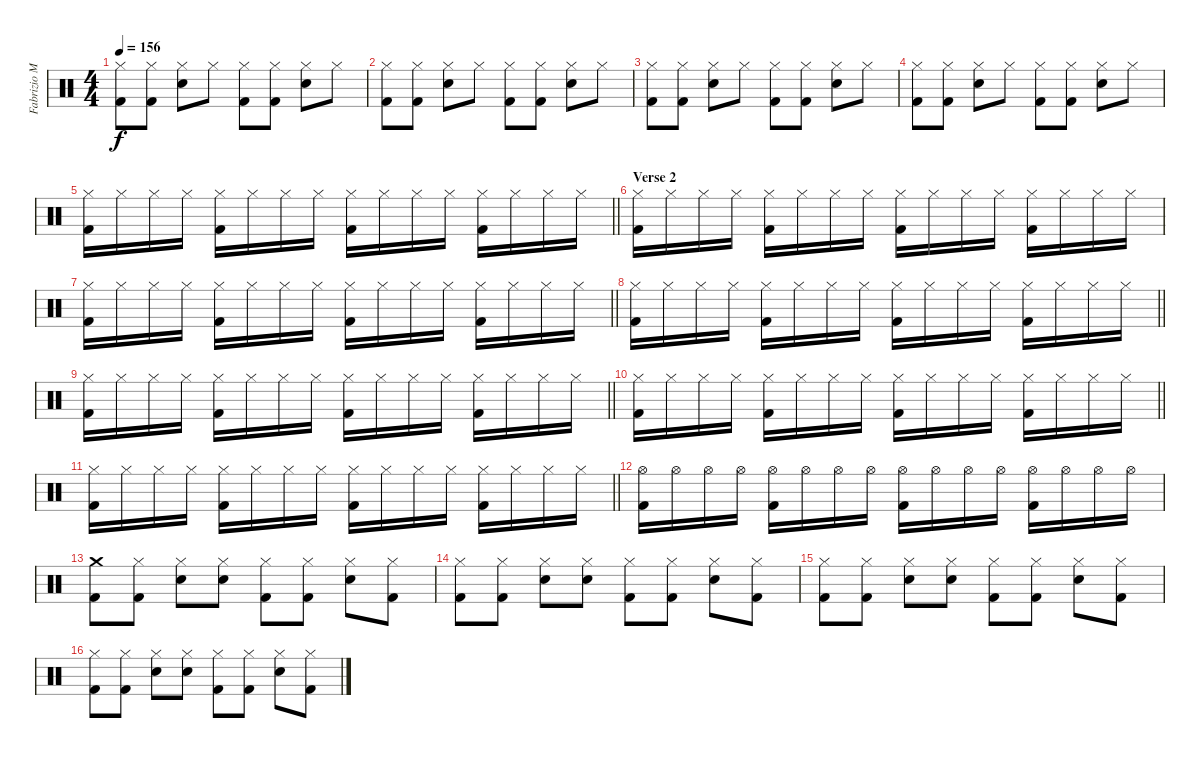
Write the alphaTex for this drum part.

\track ("Fabrizio Moretti (Drums)" "Fabrizio M") {instrument percussion}
\staff {score}
\articulation defaults
\ts (4 4)
\tempo 156
\clef neutral
\ks c
("Hi-Hat (closed)" "Kick (hit) 2").8{dy f} ("Hi-Hat (closed)" "Kick (hit) 2").8 ("Hi-Hat (closed)" "Snare (hit) 2").8 "Hi-Hat (closed)".8 ("Hi-Hat (closed)" "Kick (hit) 2").8 ("Hi-Hat (closed)" "Kick (hit) 2").8 ("Hi-Hat (closed)" "Snare (hit) 2").8 "Hi-Hat (closed)".8 |
("Hi-Hat (closed)" "Kick (hit) 2").8 ("Hi-Hat (closed)" "Kick (hit) 2").8 ("Hi-Hat (closed)" "Snare (hit) 2").8 "Hi-Hat (closed)".8 ("Hi-Hat (closed)" "Kick (hit) 2").8 ("Hi-Hat (closed)" "Kick (hit) 2").8 ("Hi-Hat (closed)" "Snare (hit) 2").8 "Hi-Hat (closed)".8 |
("Hi-Hat (closed)" "Kick (hit) 2").8 ("Hi-Hat (closed)" "Kick (hit) 2").8 ("Hi-Hat (closed)" "Snare (hit) 2").8 "Hi-Hat (closed)".8 ("Hi-Hat (closed)" "Kick (hit) 2").8 ("Hi-Hat (closed)" "Kick (hit) 2").8 ("Hi-Hat (closed)" "Snare (hit) 2").8 "Hi-Hat (closed)".8 |
("Hi-Hat (closed)" "Kick (hit) 2").8 ("Hi-Hat (closed)" "Kick (hit) 2").8 ("Hi-Hat (closed)" "Snare (hit) 2").8 "Hi-Hat (closed)".8 ("Hi-Hat (closed)" "Kick (hit) 2").8 ("Hi-Hat (closed)" "Kick (hit) 2").8 ("Hi-Hat (closed)" "Snare (hit) 2").8 "Hi-Hat (closed)".8 |
\barLineRight lightlight
("Hi-Hat (closed)" "Kick (hit) 2").16 "Hi-Hat (closed)".16 "Hi-Hat (closed)".16 "Hi-Hat (closed)".16 ("Hi-Hat (closed)" "Kick (hit) 2").16 "Hi-Hat (closed)".16 "Hi-Hat (closed)".16 "Hi-Hat (closed)".16 ("Hi-Hat (closed)" "Kick (hit) 2").16 "Hi-Hat (closed)".16 "Hi-Hat (closed)".16 "Hi-Hat (closed)".16 ("Hi-Hat (closed)" "Kick (hit) 2").16 "Hi-Hat (closed)".16 "Hi-Hat (closed)".16 "Hi-Hat (closed)".16 |
\section ("" "Verse 2")
("Hi-Hat (closed)" "Kick (hit) 2").16 "Hi-Hat (closed)".16 "Hi-Hat (closed)".16 "Hi-Hat (closed)".16 ("Hi-Hat (closed)" "Kick (hit) 2").16 "Hi-Hat (closed)".16 "Hi-Hat (closed)".16 "Hi-Hat (closed)".16 ("Hi-Hat (closed)" "Kick (hit) 2").16 "Hi-Hat (closed)".16 "Hi-Hat (closed)".16 "Hi-Hat (closed)".16 ("Hi-Hat (closed)" "Kick (hit) 2").16 "Hi-Hat (closed)".16 "Hi-Hat (closed)".16 "Hi-Hat (closed)".16 |
\barLineRight lightlight
("Hi-Hat (closed)" "Kick (hit) 2").16 "Hi-Hat (closed)".16 "Hi-Hat (closed)".16 "Hi-Hat (closed)".16 ("Hi-Hat (closed)" "Kick (hit) 2").16 "Hi-Hat (closed)".16 "Hi-Hat (closed)".16 "Hi-Hat (closed)".16 ("Hi-Hat (closed)" "Kick (hit) 2").16 "Hi-Hat (closed)".16 "Hi-Hat (closed)".16 "Hi-Hat (closed)".16 ("Hi-Hat (closed)" "Kick (hit) 2").16 "Hi-Hat (closed)".16 "Hi-Hat (closed)".16 "Hi-Hat (closed)".16 |
\barLineRight lightlight
("Hi-Hat (closed)" "Kick (hit) 2").16 "Hi-Hat (closed)".16 "Hi-Hat (closed)".16 "Hi-Hat (closed)".16 ("Hi-Hat (closed)" "Kick (hit) 2").16 "Hi-Hat (closed)".16 "Hi-Hat (closed)".16 "Hi-Hat (closed)".16 ("Hi-Hat (closed)" "Kick (hit) 2").16 "Hi-Hat (closed)".16 "Hi-Hat (closed)".16 "Hi-Hat (closed)".16 ("Hi-Hat (closed)" "Kick (hit) 2").16 "Hi-Hat (closed)".16 "Hi-Hat (closed)".16 "Hi-Hat (closed)".16 |
\barLineRight lightlight
("Hi-Hat (closed)" "Kick (hit) 2").16 "Hi-Hat (closed)".16 "Hi-Hat (closed)".16 "Hi-Hat (closed)".16 ("Hi-Hat (closed)" "Kick (hit) 2").16 "Hi-Hat (closed)".16 "Hi-Hat (closed)".16 "Hi-Hat (closed)".16 ("Hi-Hat (closed)" "Kick (hit) 2").16 "Hi-Hat (closed)".16 "Hi-Hat (closed)".16 "Hi-Hat (closed)".16 ("Hi-Hat (closed)" "Kick (hit) 2").16 "Hi-Hat (closed)".16 "Hi-Hat (closed)".16 "Hi-Hat (closed)".16 |
\barLineRight lightlight
("Hi-Hat (closed)" "Kick (hit) 2").16 "Hi-Hat (closed)".16 "Hi-Hat (closed)".16 "Hi-Hat (closed)".16 ("Hi-Hat (closed)" "Kick (hit) 2").16 "Hi-Hat (closed)".16 "Hi-Hat (closed)".16 "Hi-Hat (closed)".16 ("Hi-Hat (closed)" "Kick (hit) 2").16 "Hi-Hat (closed)".16 "Hi-Hat (closed)".16 "Hi-Hat (closed)".16 ("Hi-Hat (closed)" "Kick (hit) 2").16 "Hi-Hat (closed)".16 "Hi-Hat (closed)".16 "Hi-Hat (closed)".16 |
\barLineRight lightlight
("Hi-Hat (closed)" "Kick (hit) 2").16 "Hi-Hat (closed)".16 "Hi-Hat (closed)".16 "Hi-Hat (closed)".16 ("Hi-Hat (closed)" "Kick (hit) 2").16 "Hi-Hat (closed)".16 "Hi-Hat (closed)".16 "Hi-Hat (closed)".16 ("Hi-Hat (closed)" "Kick (hit) 2").16 "Hi-Hat (closed)".16 "Hi-Hat (closed)".16 "Hi-Hat (closed)".16 ("Hi-Hat (closed)" "Kick (hit) 2").16 "Hi-Hat (closed)".16 "Hi-Hat (closed)".16 "Hi-Hat (closed)".16 |
("Hi-Hat (open)" "Kick (hit) 2").16 "Hi-Hat (open)".16 "Hi-Hat (open)".16 "Hi-Hat (open)".16 ("Hi-Hat (open)" "Kick (hit) 2").16 "Hi-Hat (open)".16 "Hi-Hat (open)".16 "Hi-Hat (open)".16 ("Hi-Hat (open)" "Kick (hit) 2").16 "Hi-Hat (open)".16 "Hi-Hat (open)".16 "Hi-Hat (open)".16 ("Hi-Hat (open)" "Kick (hit) 2").16 "Hi-Hat (open)".16 "Hi-Hat (open)".16 "Hi-Hat (open)".16 |
("Crash medium (hit)" "Kick (hit) 2").8 ("Hi-Hat (closed)" "Kick (hit) 2").8 ("Hi-Hat (closed)" "Snare (hit) 2").8 ("Hi-Hat (closed)" "Snare (hit) 2").8 ("Hi-Hat (closed)" "Kick (hit) 2").8 ("Hi-Hat (closed)" "Kick (hit) 2").8 ("Hi-Hat (closed)" "Snare (hit) 2").8 ("Hi-Hat (closed)" "Kick (hit) 2").8 |
("Hi-Hat (closed)" "Kick (hit) 2").8 ("Hi-Hat (closed)" "Kick (hit) 2").8 ("Hi-Hat (closed)" "Snare (hit) 2").8 ("Hi-Hat (closed)" "Snare (hit) 2").8 ("Hi-Hat (closed)" "Kick (hit) 2").8 ("Hi-Hat (closed)" "Kick (hit) 2").8 ("Hi-Hat (closed)" "Snare (hit) 2").8 ("Hi-Hat (closed)" "Kick (hit) 2").8 |
("Hi-Hat (closed)" "Kick (hit) 2").8 ("Hi-Hat (closed)" "Kick (hit) 2").8 ("Hi-Hat (closed)" "Snare (hit) 2").8 ("Hi-Hat (closed)" "Snare (hit) 2").8 ("Hi-Hat (closed)" "Kick (hit) 2").8 ("Hi-Hat (closed)" "Kick (hit) 2").8 ("Hi-Hat (closed)" "Snare (hit) 2").8 ("Hi-Hat (closed)" "Kick (hit) 2").8 |
("Hi-Hat (closed)" "Kick (hit) 2").8 ("Hi-Hat (closed)" "Kick (hit) 2").8 ("Hi-Hat (closed)" "Snare (hit) 2").8 ("Hi-Hat (closed)" "Snare (hit) 2").8 ("Hi-Hat (closed)" "Kick (hit) 2").8 ("Hi-Hat (closed)" "Kick (hit) 2").8 ("Hi-Hat (closed)" "Snare (hit) 2").8 ("Hi-Hat (closed)" "Kick (hit) 2").8
